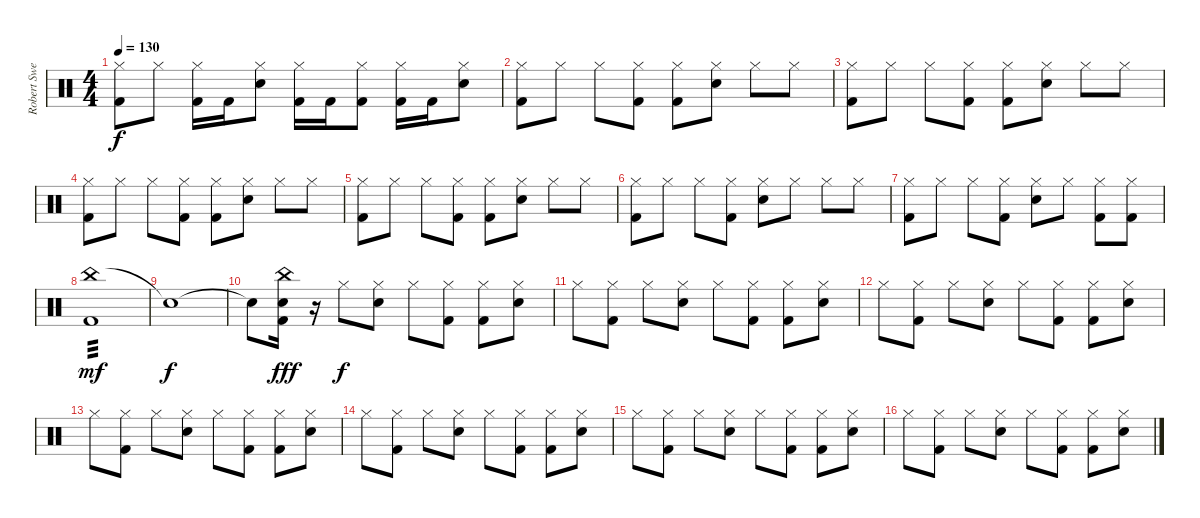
\track ("Robert Sweet" "Robert Swe") {instrument percussion}
\staff {score}
\articulation defaults
\ts (4 4)
\tempo 130
\clef neutral
\ks c
("Hi-Hat (closed)" "Kick (hit) 2").8{dy f} "Hi-Hat (closed)".8 ("Hi-Hat (closed)" "Kick (hit) 2").16 "Kick (hit) 2".16 ("Hi-Hat (closed)" "Snare (hit) 2").8 ("Hi-Hat (closed)" "Kick (hit) 2").16 "Kick (hit) 2".16 ("Hi-Hat (closed)" "Kick (hit) 2").8 ("Hi-Hat (closed)" "Kick (hit) 2").16 "Kick (hit) 2".16 ("Hi-Hat (closed)" "Snare (hit) 2").8 |
("Hi-Hat (closed)" "Kick (hit) 2").8 "Hi-Hat (closed)".8 "Hi-Hat (closed)".8 ("Hi-Hat (closed)" "Kick (hit) 2").8 ("Hi-Hat (closed)" "Kick (hit) 2").8 ("Hi-Hat (closed)" "Snare (hit) 2").8 "Hi-Hat (closed)".8 "Hi-Hat (closed)".8 |
("Hi-Hat (closed)" "Kick (hit) 2").8 "Hi-Hat (closed)".8 "Hi-Hat (closed)".8 ("Hi-Hat (closed)" "Kick (hit) 2").8 ("Hi-Hat (closed)" "Kick (hit) 2").8 ("Hi-Hat (closed)" "Snare (hit) 2").8 "Hi-Hat (closed)".8 "Hi-Hat (closed)".8 |
("Hi-Hat (closed)" "Kick (hit) 2").8 "Hi-Hat (closed)".8 "Hi-Hat (closed)".8 ("Hi-Hat (closed)" "Kick (hit) 2").8 ("Hi-Hat (closed)" "Kick (hit) 2").8 ("Hi-Hat (closed)" "Snare (hit) 2").8 "Hi-Hat (closed)".8 "Hi-Hat (closed)".8 |
("Hi-Hat (closed)" "Kick (hit) 2").8 "Hi-Hat (closed)".8 "Hi-Hat (closed)".8 ("Hi-Hat (closed)" "Kick (hit) 2").8 ("Hi-Hat (closed)" "Kick (hit) 2").8 ("Hi-Hat (closed)" "Snare (hit) 2").8 "Hi-Hat (closed)".8 "Hi-Hat (closed)".8 |
("Hi-Hat (closed)" "Kick (hit) 2").8 "Hi-Hat (closed)".8 "Hi-Hat (closed)".8 ("Hi-Hat (closed)" "Kick (hit) 2").8 ("Hi-Hat (closed)" "Snare (hit) 2").8 "Hi-Hat (closed)".8 "Hi-Hat (closed)".8 "Hi-Hat (closed)".8 |
("Hi-Hat (closed)" "Kick (hit) 2").8 "Hi-Hat (closed)".8 "Hi-Hat (closed)".8 ("Hi-Hat (closed)" "Kick (hit) 2").8 ("Hi-Hat (closed)" "Snare (hit) 2").8 "Hi-Hat (closed)".8 ("Hi-Hat (closed)" "Kick (hit) 2").8 ("Hi-Hat (closed)" "Kick (hit) 2").8 |
("China (hit)" "Kick (hit) 2").1{tp 3 dy mf} |
"Snare (hit)"{t}.1{dy f} |
"Snare (hit)"{t}.8 ("China (hit)" "Snare (hit) 2" "Kick (hit) 2").16{dy fff} r.16 "Hi-Hat (closed)".8{dy f} ("Hi-Hat (closed)" "Snare (hit) 2").8 "Hi-Hat (closed)".8 ("Hi-Hat (closed)" "Kick (hit) 2").8 ("Hi-Hat (closed)" "Kick (hit) 2").8 ("Hi-Hat (closed)" "Snare (hit) 2").8 |
"Hi-Hat (closed)".8 ("Hi-Hat (closed)" "Kick (hit) 2").8 "Hi-Hat (closed)".8 ("Hi-Hat (closed)" "Snare (hit) 2").8 "Hi-Hat (closed)".8 ("Hi-Hat (closed)" "Kick (hit) 2").8 ("Hi-Hat (closed)" "Kick (hit) 2").8 ("Hi-Hat (closed)" "Snare (hit) 2").8 |
"Hi-Hat (closed)".8 ("Hi-Hat (closed)" "Kick (hit) 2").8 "Hi-Hat (closed)".8 ("Hi-Hat (closed)" "Snare (hit) 2").8 "Hi-Hat (closed)".8 ("Hi-Hat (closed)" "Kick (hit) 2").8 ("Hi-Hat (closed)" "Kick (hit) 2").8 ("Hi-Hat (closed)" "Snare (hit) 2").8 |
"Hi-Hat (closed)".8 ("Hi-Hat (closed)" "Kick (hit) 2").8 "Hi-Hat (closed)".8 ("Hi-Hat (closed)" "Snare (hit) 2").8 "Hi-Hat (closed)".8 ("Hi-Hat (closed)" "Kick (hit) 2").8 ("Hi-Hat (closed)" "Kick (hit) 2").8 ("Hi-Hat (closed)" "Snare (hit) 2").8 |
"Hi-Hat (closed)".8 ("Hi-Hat (closed)" "Kick (hit) 2").8 "Hi-Hat (closed)".8 ("Hi-Hat (closed)" "Snare (hit) 2").8 "Hi-Hat (closed)".8 ("Hi-Hat (closed)" "Kick (hit) 2").8 ("Hi-Hat (closed)" "Kick (hit) 2").8 ("Hi-Hat (closed)" "Snare (hit) 2").8 |
"Hi-Hat (closed)".8 ("Hi-Hat (closed)" "Kick (hit) 2").8 "Hi-Hat (closed)".8 ("Hi-Hat (closed)" "Snare (hit) 2").8 "Hi-Hat (closed)".8 ("Hi-Hat (closed)" "Kick (hit) 2").8 ("Hi-Hat (closed)" "Kick (hit) 2").8 ("Hi-Hat (closed)" "Snare (hit) 2").8 |
"Hi-Hat (closed)".8 ("Hi-Hat (closed)" "Kick (hit) 2").8 "Hi-Hat (closed)".8 ("Hi-Hat (closed)" "Snare (hit) 2").8 "Hi-Hat (closed)".8 ("Hi-Hat (closed)" "Kick (hit) 2").8 ("Hi-Hat (closed)" "Kick (hit) 2").8 ("Hi-Hat (closed)" "Snare (hit) 2").8
